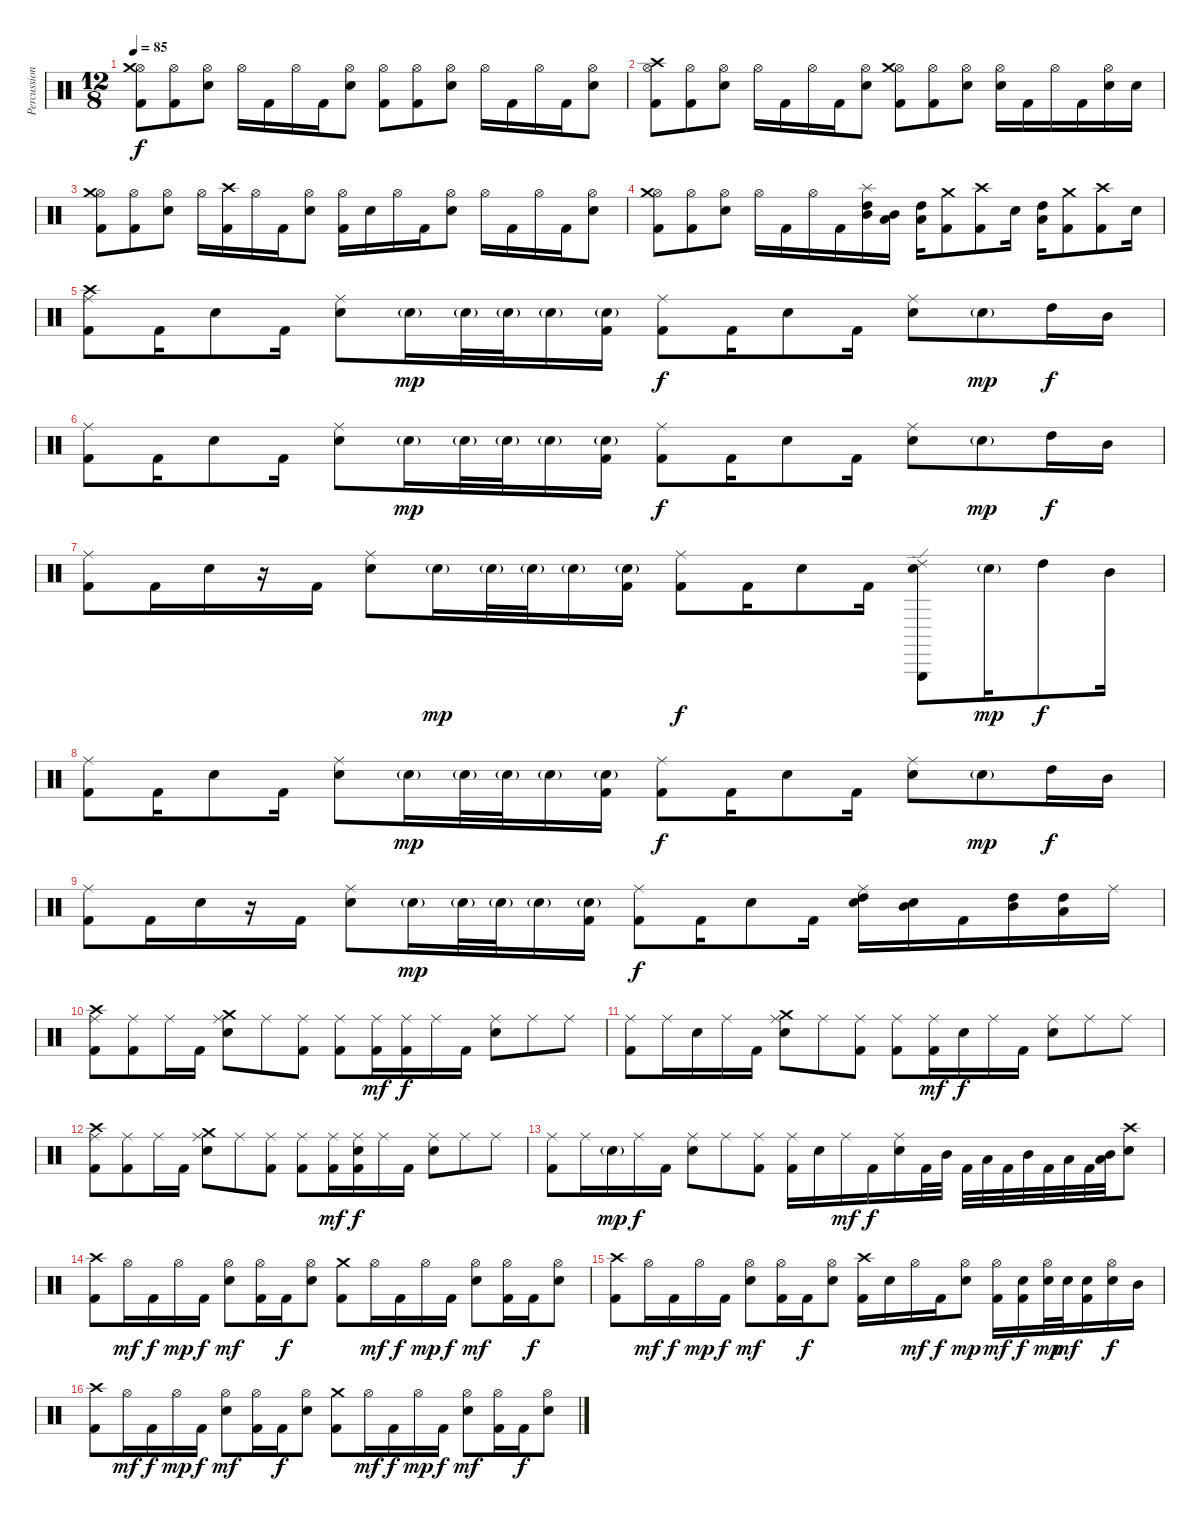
\track ("Percussion" "Percussion") {instrument percussion}
\staff {score}
\articulation defaults
\ts (12 8)
\tempo 85
\clef neutral
\ks c
("Hi-Hat (open)" "Crash medium (hit)" "Kick (hit) 2").8{dy f} ("Hi-Hat (open)" "Kick (hit) 2").8 ("Hi-Hat (open)" "Snare (hit) 2").8 "Hi-Hat (open)".16 "Kick (hit) 2".16 "Hi-Hat (open)".16 "Kick (hit) 2".16 ("Hi-Hat (open)" "Snare (hit) 2").8 ("Hi-Hat (open)" "Kick (hit) 2").8 ("Hi-Hat (open)" "Kick (hit) 2").8 ("Hi-Hat (open)" "Snare (hit) 2").8 "Hi-Hat (open)".16 "Kick (hit) 2".16 "Hi-Hat (open)".16 "Kick (hit) 2".16 ("Hi-Hat (open)" "Snare (hit) 2").8 |
("Hi-Hat (open)" "Crash high (hit)" "Kick (hit) 2").8 ("Hi-Hat (open)" "Kick (hit) 2").8 ("Hi-Hat (open)" "Snare (hit) 2").8 "Hi-Hat (open)".16 "Kick (hit) 2".16 "Hi-Hat (open)".16 "Kick (hit) 2".16 ("Hi-Hat (open)" "Snare (hit) 2").8 ("Hi-Hat (open)" "Crash medium (hit)" "Kick (hit) 2").8 ("Hi-Hat (open)" "Kick (hit) 2").8 ("Hi-Hat (open)" "Snare (hit) 2").8 ("Hi-Hat (open)" "Snare (hit) 2").16 "Kick (hit) 2".16 "Hi-Hat (open)".16 "Kick (hit) 2".16 ("Hi-Hat (open)" "Snare (hit) 2").16 "Snare (hit) 2".16 |
("Hi-Hat (open)" "Crash medium (hit)" "Kick (hit) 2").8 ("Hi-Hat (open)" "Kick (hit) 2").8 ("Hi-Hat (open)" "Snare (hit) 2").8 "Hi-Hat (open)".16 ("Crash high (hit)" "Kick (hit) 2").16 "Hi-Hat (open)".16 "Kick (hit) 2".16 ("Hi-Hat (open)" "Snare (hit) 2").8 ("Hi-Hat (open)" "Kick (hit) 2").16 "Snare (hit) 2".16 "Hi-Hat (open)".16 "Kick (hit) 2".16 ("Hi-Hat (open)" "Snare (hit) 2").8 "Hi-Hat (open)".16 "Kick (hit) 2".16 "Hi-Hat (open)".16 "Kick (hit) 2".16 ("Hi-Hat (open)" "Snare (hit) 2").8 |
("Hi-Hat (open)" "Crash medium (hit)" "Kick (hit) 2").8 ("Hi-Hat (open)" "Kick (hit) 2").8 ("Hi-Hat (open)" "Snare (hit) 2").8 "Hi-Hat (open)".16 "Kick (hit) 2".16 "Hi-Hat (open)".16 "Kick (hit) 2".16 ("Splash (hit)" "High Tom (hit)" "Mid Tom (hit)").16 ("Mid Tom (hit)" "Low Tom (hit)").16 ("High Tom (hit)" "Low Tom (hit)").16 ("Crash medium (hit)" "Kick (hit) 2").8 ("Crash high (hit)" "Kick (hit) 2").8 "Snare (hit) 2".16 ("High Tom (hit)" "Low Tom (hit)").16 ("Crash medium (hit)" "Kick (hit) 2").8 ("Crash high (hit)" "Kick (hit) 2").8 "Snare (hit) 2".16 |
("Ride (middle)" "Crash high (hit)" "Kick (hit) 2").8 "Kick (hit) 2".16 "Snare (hit) 2".8 "Kick (hit) 2".16 ("Ride (middle)" "Snare (hit) 2").8 "Snare (hit) 2"{g}.16{dy mp} "Snare (hit) 2"{g}.32 "Snare (hit) 2"{g}.32 "Snare (hit) 2"{g}.16 ("Snare (hit) 2"{g} "Kick (hit) 2").16 ("Ride (middle)" "Kick (hit) 2").8{dy f} "Kick (hit) 2".16 "Snare (hit) 2".8 "Kick (hit) 2".16 ("Ride (middle)" "Snare (hit) 2").8 "Snare (hit) 2"{g}.8{dy mp} "High Tom (hit)".16{dy f} "Mid Tom (hit)".16 |
("Ride (middle)" "Kick (hit) 2").8 "Kick (hit) 2".16 "Snare (hit) 2".8 "Kick (hit) 2".16 ("Ride (middle)" "Snare (hit) 2").8 "Snare (hit) 2"{g}.16{dy mp} "Snare (hit) 2"{g}.32 "Snare (hit) 2"{g}.32 "Snare (hit) 2"{g}.16 ("Snare (hit) 2"{g} "Kick (hit) 2").16 ("Ride (middle)" "Kick (hit) 2").8{dy f} "Kick (hit) 2".16 "Snare (hit) 2".8 "Kick (hit) 2".16 ("Ride (middle)" "Snare (hit) 2").8 "Snare (hit) 2"{g}.8{dy mp} "High Tom (hit)".16{dy f} "Mid Tom (hit)".16 |
("Ride (middle)" "Kick (hit) 2").8 "Kick (hit) 2".16 "Snare (hit) 2".16 r.16 "Kick (hit) 2".16 ("Ride (middle)" "Snare (hit) 2").8 "Snare (hit) 2"{g}.16{dy mp} "Snare (hit) 2"{g}.32 "Snare (hit) 2"{g}.32 "Snare (hit) 2"{g}.16 ("Snare (hit) 2"{g} "Kick (hit) 2").16 ("Ride (middle)" "Kick (hit) 2").8{dy f} "Kick (hit) 2".16 "Snare (hit) 2".8 "Kick (hit) 2".16 ("Triangle (hit)" "Ride (edge) 2" "Snare (hit) 2").8 "Snare (hit) 2"{g}.16{dy mp} "High Tom (hit)".8{dy f} "Mid Tom (hit)".16 |
("Ride (middle)" "Kick (hit) 2").8 "Kick (hit) 2".16 "Snare (hit) 2".8 "Kick (hit) 2".16 ("Ride (middle)" "Snare (hit) 2").8 "Snare (hit) 2"{g}.16{dy mp} "Snare (hit) 2"{g}.32 "Snare (hit) 2"{g}.32 "Snare (hit) 2"{g}.16 ("Snare (hit) 2"{g} "Kick (hit) 2").16 ("Ride (middle)" "Kick (hit) 2").8{dy f} "Kick (hit) 2".16 "Snare (hit) 2".8 "Kick (hit) 2".16 ("Ride (middle)" "Snare (hit) 2").8 "Snare (hit) 2"{g}.8{dy mp} "High Tom (hit)".16{dy f} "Mid Tom (hit)".16 |
("Ride (middle)" "Kick (hit) 2").8 "Kick (hit) 2".16 "Snare (hit) 2".16 r.16 "Kick (hit) 2".16 ("Ride (middle)" "Snare (hit) 2").8 "Snare (hit) 2"{g}.16{dy mp} "Snare (hit) 2"{g}.32 "Snare (hit) 2"{g}.32 "Snare (hit) 2"{g}.16 ("Snare (hit) 2"{g} "Kick (hit) 2").16 ("Ride (middle)" "Kick (hit) 2").8{dy f} "Kick (hit) 2".16 "Snare (hit) 2".8 "Kick (hit) 2".16 ("Ride (middle)" "Snare (hit) 2" "High Tom (hit)").16 ("Snare (hit) 2" "Mid Tom (hit)").16 "Kick (hit) 2".16 ("High Tom (hit)" "Mid Tom (hit)").16 ("High Tom (hit)" "Low Tom (hit)").16 "Ride (middle)".16 |
("Ride (middle)" "Crash high (hit)" "Kick (hit) 2").8 ("Ride (middle)" "Kick (hit) 2").8 "Ride (middle)".16 "Kick (hit) 2".16 ("Ride (middle)" "Crash medium (hit)" "Snare (hit) 2").8 "Ride (middle)".8 ("Ride (middle)" "Kick (hit) 2").8 ("Ride (middle)" "Kick (hit) 2").8 ("Ride (middle)" "Kick (hit) 2").16{dy mf} ("Ride (middle)" "Kick (hit) 2").16{dy f} "Ride (middle)".16 "Kick (hit) 2".16 ("Ride (middle)" "Snare (hit) 2").8 "Ride (middle)".8 "Ride (middle)".8 |
("Ride (middle)" "Kick (hit) 2").8 "Ride (middle)".16 "Snare (hit) 2".16 "Ride (middle)".16 "Kick (hit) 2".16 ("Ride (middle)" "Crash medium (hit)" "Snare (hit) 2").8 "Ride (middle)".8 ("Ride (middle)" "Kick (hit) 2").8 ("Ride (middle)" "Kick (hit) 2").8 ("Ride (middle)" "Kick (hit) 2").16{dy mf} "Snare (hit) 2".16{dy f} "Ride (middle)".16 "Kick (hit) 2".16 ("Ride (middle)" "Snare (hit) 2").8 "Ride (middle)".8 "Ride (middle)".8 |
("Ride (middle)" "Crash high (hit)" "Kick (hit) 2").8 ("Ride (middle)" "Kick (hit) 2").8 "Ride (middle)".16 "Kick (hit) 2".16 ("Ride (middle)" "Crash medium (hit)" "Snare (hit) 2").8 "Ride (middle)".8 ("Ride (middle)" "Kick (hit) 2").8 ("Ride (middle)" "Kick (hit) 2").8 ("Ride (middle)" "Kick (hit) 2").16{dy mf} ("Ride (middle)" "Snare (hit) 2" "Kick (hit) 2").16{dy f} "Ride (middle)".16 "Kick (hit) 2".16 ("Ride (middle)" "Snare (hit) 2").8 "Ride (middle)".8 "Ride (middle)".8 |
("Ride (middle)" "Kick (hit) 2").8 "Ride (middle)".16 "Snare (hit) 2"{g}.16{dy mp} "Ride (middle)".16{dy f} "Kick (hit) 2".16 ("Ride (middle)" "Snare (hit) 2").8 "Ride (middle)".8 ("Ride (middle)" "Kick (hit) 2").8 ("Ride (middle)" "Kick (hit) 2").16 "Snare (hit) 2".16 "Ride (middle)".16{dy mf} "Kick (hit) 2".16{dy f} ("Ride (middle)" "Snare (hit) 2").16 "Kick (hit) 2".32 "Mid Tom (hit)".32 "Kick (hit) 2".32 "Low Tom (hit)".32 "Kick (hit) 2".32 "Mid Tom (hit)".32 "Kick (hit) 2".32 "Low Tom (hit)".32 "Kick (hit) 2".32 ("Mid Tom (hit)" "Low Tom (hit)").32 ("Crash high (hit)" "Snare (hit) 2").8 |
("Crash high (hit)" "Kick (hit) 2").8 "Hi-Hat (open)".16{dy mf} "Kick (hit) 2".16{dy f} "Hi-Hat (open)".16{dy mp} "Kick (hit) 2".16{dy f} ("Hi-Hat (open)" "Snare (hit) 2").8{dy mf} ("Hi-Hat (open)" "Kick (hit) 2").16 "Kick (hit) 2".16{dy f} ("Hi-Hat (open)" "Snare (hit) 2").8 ("Crash medium (hit)" "Kick (hit) 2").8 "Hi-Hat (open)".16{dy mf} "Kick (hit) 2".16{dy f} "Hi-Hat (open)".16{dy mp} "Kick (hit) 2".16{dy f} ("Hi-Hat (open)" "Snare (hit) 2").8{dy mf} ("Hi-Hat (open)" "Kick (hit) 2").16 "Kick (hit) 2".16{dy f} ("Hi-Hat (open)" "Snare (hit) 2").8 |
("Crash high (hit)" "Kick (hit) 2").8 "Hi-Hat (open)".16{dy mf} "Kick (hit) 2".16{dy f} "Hi-Hat (open)".16{dy mp} "Kick (hit) 2".16{dy f} ("Hi-Hat (open)" "Snare (hit) 2").8{dy mf} ("Hi-Hat (open)" "Kick (hit) 2").16 "Kick (hit) 2".16{dy f} ("Hi-Hat (open)" "Snare (hit) 2").8 ("Crash high (hit)" "Kick (hit) 2").16 "Snare (hit) 2".16 "Hi-Hat (open)".16{dy mf} "Kick (hit) 2".16{dy f} ("Hi-Hat (open)" "Snare (hit) 2").8{dy mp} ("Hi-Hat (open)" "Kick (hit) 2").16{dy mf} ("Snare (hit) 2" "Kick (hit) 2").16{dy f} ("Hi-Hat (open)" "Snare (hit) 2").32{dy mp} "Snare (hit) 2".32{dy mf} ("Snare (hit) 2" "Kick (hit) 2").16 ("Hi-Hat (open)" "Snare (hit) 2").16{dy f} "Mid Tom (hit)".16 |
("Crash high (hit)" "Kick (hit) 2").8 "Hi-Hat (open)".16{dy mf} "Kick (hit) 2".16{dy f} "Hi-Hat (open)".16{dy mp} "Kick (hit) 2".16{dy f} ("Hi-Hat (open)" "Snare (hit) 2").8{dy mf} ("Hi-Hat (open)" "Kick (hit) 2").16 "Kick (hit) 2".16{dy f} ("Hi-Hat (open)" "Snare (hit) 2").8 ("Crash medium (hit)" "Kick (hit) 2").8 "Hi-Hat (open)".16{dy mf} "Kick (hit) 2".16{dy f} "Hi-Hat (open)".16{dy mp} "Kick (hit) 2".16{dy f} ("Hi-Hat (open)" "Snare (hit) 2").8{dy mf} ("Hi-Hat (open)" "Kick (hit) 2").16 "Kick (hit) 2".16{dy f} ("Hi-Hat (open)" "Snare (hit) 2").8
